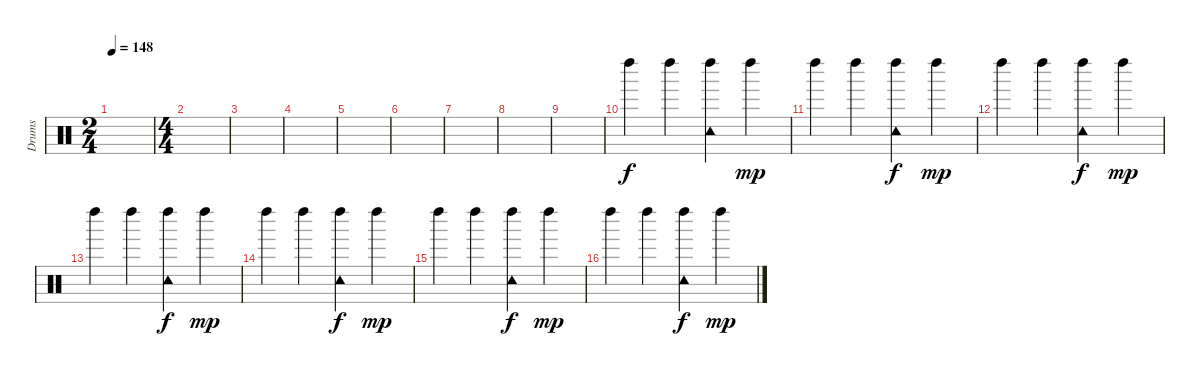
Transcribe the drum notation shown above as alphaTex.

\track ("Drums" "Drums") {instrument percussion}
\staff {score}
\articulation defaults
\ts (2 4)
\tempo 148
\clef neutral
\ks c
|
\ts (4 4)
|
|
|
|
|
|
|
|
"Left Maraca (hit)".4 "Left Maraca (hit)".4 ("Tambourine (hit)" "Left Maraca (hit)").4{dy f} "Left Maraca (hit)".4{dy mp} |
"Left Maraca (hit)".4 "Left Maraca (hit)".4 ("Tambourine (hit)" "Left Maraca (hit)").4{dy f} "Left Maraca (hit)".4{dy mp} |
"Left Maraca (hit)".4 "Left Maraca (hit)".4 ("Tambourine (hit)" "Left Maraca (hit)").4{dy f} "Left Maraca (hit)".4{dy mp} |
"Left Maraca (hit)".4 "Left Maraca (hit)".4 ("Tambourine (hit)" "Left Maraca (hit)").4{dy f} "Left Maraca (hit)".4{dy mp} |
"Left Maraca (hit)".4 "Left Maraca (hit)".4 ("Tambourine (hit)" "Left Maraca (hit)").4{dy f} "Left Maraca (hit)".4{dy mp} |
"Left Maraca (hit)".4 "Left Maraca (hit)".4 ("Tambourine (hit)" "Left Maraca (hit)").4{dy f} "Left Maraca (hit)".4{dy mp} |
"Left Maraca (hit)".4 "Left Maraca (hit)".4 ("Tambourine (hit)" "Left Maraca (hit)").4{dy f} "Left Maraca (hit)".4{dy mp}
